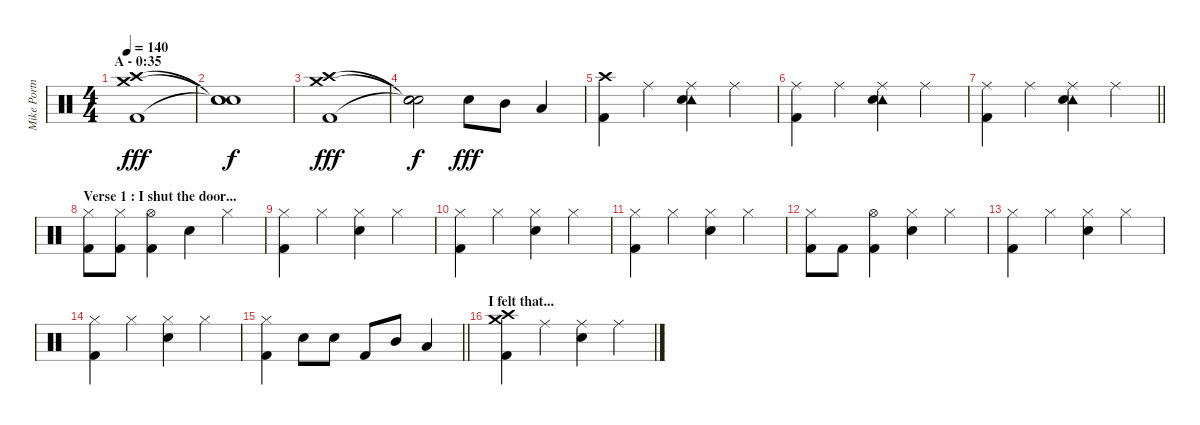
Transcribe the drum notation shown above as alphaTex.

\track ("Mike Portnoy" "Mike Portn") {instrument percussion}
\staff {score}
\articulation defaults
\ts (4 4)
\section ("" "A - 0:35")
\tempo 140
\clef neutral
\ks c
("Crash medium (hit)" "Crash high (hit)" "Kick (hit) 2").1{dy fff} |
("Snare (hit)"{t} "Snare (hit)"{t} "Snare (hit)"{t}).1{dy f} |
("Crash high (hit)" "Crash medium (hit)" "Kick (hit) 2").1{dy fff} |
("Snare (hit)"{t} "Snare (hit)"{t} "Snare (hit)"{t}).2{dy f} "Snare (hit) 2".8{dy fff} "Mid Tom (hit)".8 "Low Tom (hit)".4 |
("Crash high (hit)" "Kick (hit) 2").4 "Ride (middle)".4 ("Tambourine (hit)" "Ride (middle)" "Snare (hit) 2").4 "Ride (middle)".4 |
("Ride (middle)" "Kick (hit) 2").4 "Ride (middle)".4 ("Tambourine (hit)" "Ride (middle)" "Snare (hit) 2").4 "Ride (middle)".4 |
\barLineRight lightlight
("Ride (middle)" "Kick (hit) 2").4 "Ride (middle)".4 ("Tambourine (hit)" "Ride (middle)" "Snare (hit) 2").4 "Ride (middle)".4 |
\section ("" "Verse 1 : I shut the door...")
("Hi-Hat (closed)" "Kick (hit) 2").8 ("Hi-Hat (closed)" "Kick (hit) 2").8 ("Hi-Hat (open)" "Kick (hit) 2").4 "Snare (hit) 2".4 "Hi-Hat (closed)".4 |
("Hi-Hat (closed)" "Kick (hit) 2").4 "Hi-Hat (closed)".4 ("Hi-Hat (closed)" "Snare (hit) 2").4 "Hi-Hat (closed)".4 |
("Hi-Hat (closed)" "Kick (hit) 2").4 "Hi-Hat (closed)".4 ("Hi-Hat (closed)" "Snare (hit) 2").4 "Hi-Hat (closed)".4 |
("Hi-Hat (closed)" "Kick (hit) 2").4 "Hi-Hat (closed)".4 ("Hi-Hat (closed)" "Snare (hit) 2").4 "Hi-Hat (closed)".4 |
("Hi-Hat (closed)" "Kick (hit) 2").8 "Kick (hit) 2".8 ("Hi-Hat (open)" "Kick (hit) 2").4 ("Hi-Hat (closed)" "Snare (hit) 2").4 "Hi-Hat (closed)".4 |
("Hi-Hat (closed)" "Kick (hit) 2").4 "Hi-Hat (closed)".4 ("Hi-Hat (closed)" "Snare (hit) 2").4 "Hi-Hat (closed)".4 |
("Hi-Hat (closed)" "Kick (hit) 2").4 "Hi-Hat (closed)".4 ("Hi-Hat (closed)" "Snare (hit) 2").4 "Hi-Hat (closed)".4 |
\barLineRight lightlight
("Hi-Hat (closed)" "Kick (hit) 2").4 "Snare (hit) 2".8 "Snare (hit) 2".8 "Kick (hit) 2".8 "Mid Tom (hit)".8 "Low Tom (hit)".4 |
\section ("" "I felt that...")
("Crash high (hit)" "Crash medium (hit)" "Kick (hit) 2").4 "Ride (middle)".4 ("Ride (middle)" "Snare (hit) 2").4 "Ride (middle)".4
